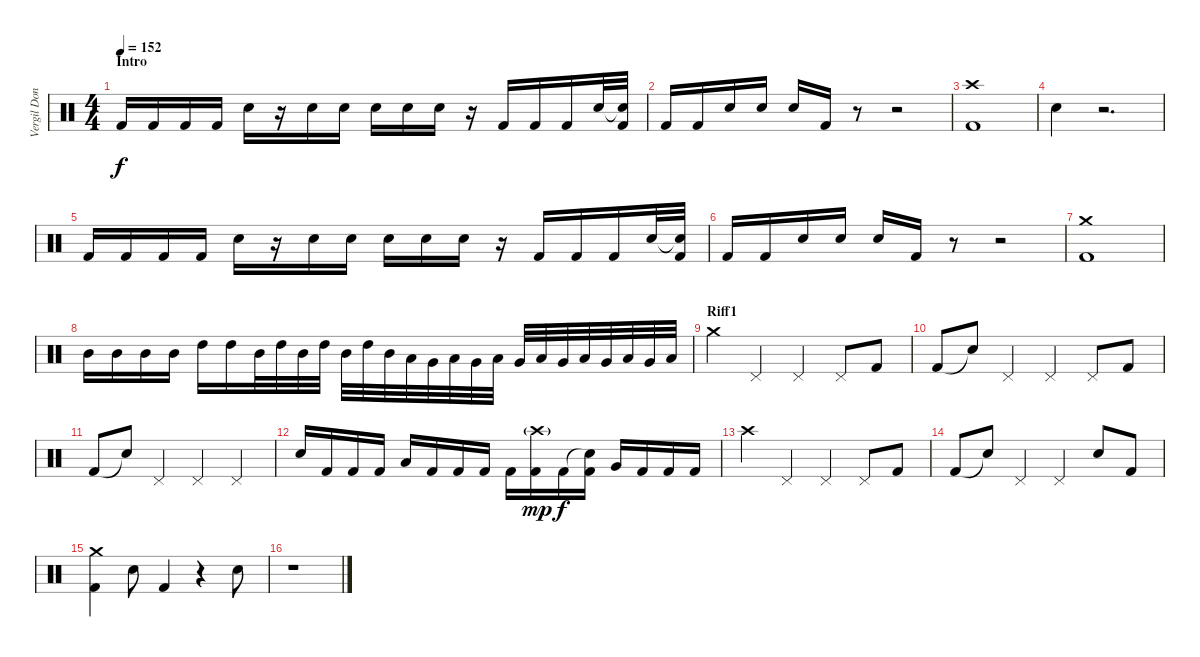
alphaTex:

\track ("Vergil Donati" "Vergil Don") {instrument percussion}
\staff {score}
\articulation defaults
\ts (4 4)
\section ("" "Intro")
\tempo 152
\clef neutral
\ks c "Kick (hit) 2".16{dy f} "Kick (hit) 2".16 "Kick (hit) 2".16 "Kick (hit) 2".16 "Snare (hit) 2".16
r.16 "Snare (hit) 2".16 "Snare (hit) 2".16 "Snare (hit) 2".16 "Snare (hit) 2".16 "Snare (hit) 2".16 r.16 "Kick (hit) 2".16 "Kick (hit) 2".16 "Kick (hit) 2".16 "Snare (hit) 2".32 ("Snare (hit)"{t} "Kick (hit) 2").32 |
"Kick (hit) 2".16 "Kick (hit) 2".16 "Snare (hit) 2".16 "Snare (hit) 2".16 "Snare (hit) 2".16 "Kick (hit) 2".16 r.8 r.2 |
("Crash high (hit)" "Kick (hit) 2").1 |
"Electric Snare (hit)".4 r.2{d} |
"Kick (hit) 2".16 "Kick (hit) 2".16 "Kick (hit) 2".16 "Kick (hit) 2".16 "Snare (hit) 2".16 r.16 "Snare (hit) 2".16 "Snare (hit) 2".16 "Snare (hit) 2".16 "Snare (hit) 2".16 "Snare (hit) 2".16 r.16 "Kick (hit) 2".16 "Kick (hit) 2".16 "Kick (hit) 2".16 "Snare (hit) 2".32 ("Snare (hit)"{t} "Kick (hit) 2").32 |
"Kick (hit) 2".16 "Kick (hit) 2".16 "Snare (hit) 2".16 "Snare (hit) 2".16 "Snare (hit) 2".16 "Kick (hit) 2".16 r.8 r.2 |
("Crash medium (hit)" "Kick (hit) 2").1 |
"Mid Tom (hit)".16 "Mid Tom (hit)".16 "Mid Tom (hit)".16 "Mid Tom (hit)".16 "High Tom (hit)".16 "High Tom (hit)".16 "Mid Tom (hit)".32 "High Tom (hit)".32 "Mid Tom (hit)".32 "High Tom (hit)".32 "Mid Tom (hit)".32 "High Tom (hit)".32 "Mid Tom (hit)".32 "Low Tom (hit)".32 "Very Low Tom (hit)".32 "Low Tom (hit)".32 "Very Low Tom (hit)".32 "Low Tom (hit)".32 "Very Low Tom (hit)".32 "Low Floor Tom (hit)".32 "Very Low Tom (hit)".32 "Low Floor Tom (hit)".32 "Very Low Tom (hit)".32 "Low Floor Tom (hit)".32 "Very Low Tom (hit)".32 "Low Floor Tom (hit)".32 |
\section ("" "Riff1")
"Crash medium (hit)".4 "Pedal Hi-Hat (hit)".4 "Pedal Hi-Hat (hit)".4 "Pedal Hi-Hat (hit)".8 "Kick (hit) 2".8 |
"Kick (hit) 2".8 "Snare (hit)"{t}.8 "Pedal Hi-Hat (hit)".4 "Pedal Hi-Hat (hit)".4 "Pedal Hi-Hat (hit)".8 "Kick (hit) 2".8 |
"Kick (hit) 2".8 "Snare (hit)"{t}.8 "Pedal Hi-Hat (hit)".4 "Pedal Hi-Hat (hit)".4 "Pedal Hi-Hat (hit)".4 |
"Electric Snare (hit)".16 "Kick (hit) 2".16 "Kick (hit) 2".16 "Kick (hit) 2".16 "Low Tom (hit)".16 "Kick (hit) 2".16 "Kick (hit) 2".16 "Kick (hit) 2".16 "Kick (hit) 2".16 ("Crash high (hit)"{g} "Kick (hit) 2").16{dy mp} "Kick (hit) 2".16{dy f} ("Snare (hit)"{t} "Kick (hit) 2").16 "Very Low Tom (hit)".16 "Kick (hit) 2".16 "Kick (hit) 2".16 "Kick (hit) 2".16 |
"Crash high (hit)".4 "Pedal Hi-Hat (hit)".4 "Pedal Hi-Hat (hit)".4 "Pedal Hi-Hat (hit)".8 "Kick (hit) 2".8 |
"Kick (hit) 2".8 "Snare (hit)"{t}.8 "Pedal Hi-Hat (hit)".4 "Pedal Hi-Hat (hit)".4 "Electric Snare (hit)".8 "Kick (hit) 2".8 |
("Crash medium (hit)" "Kick (hit) 2").4 "Snare (hit) 2".8 "Kick (hit) 2".4 r.4 "Electric Snare (hit)".8 |
r.1
